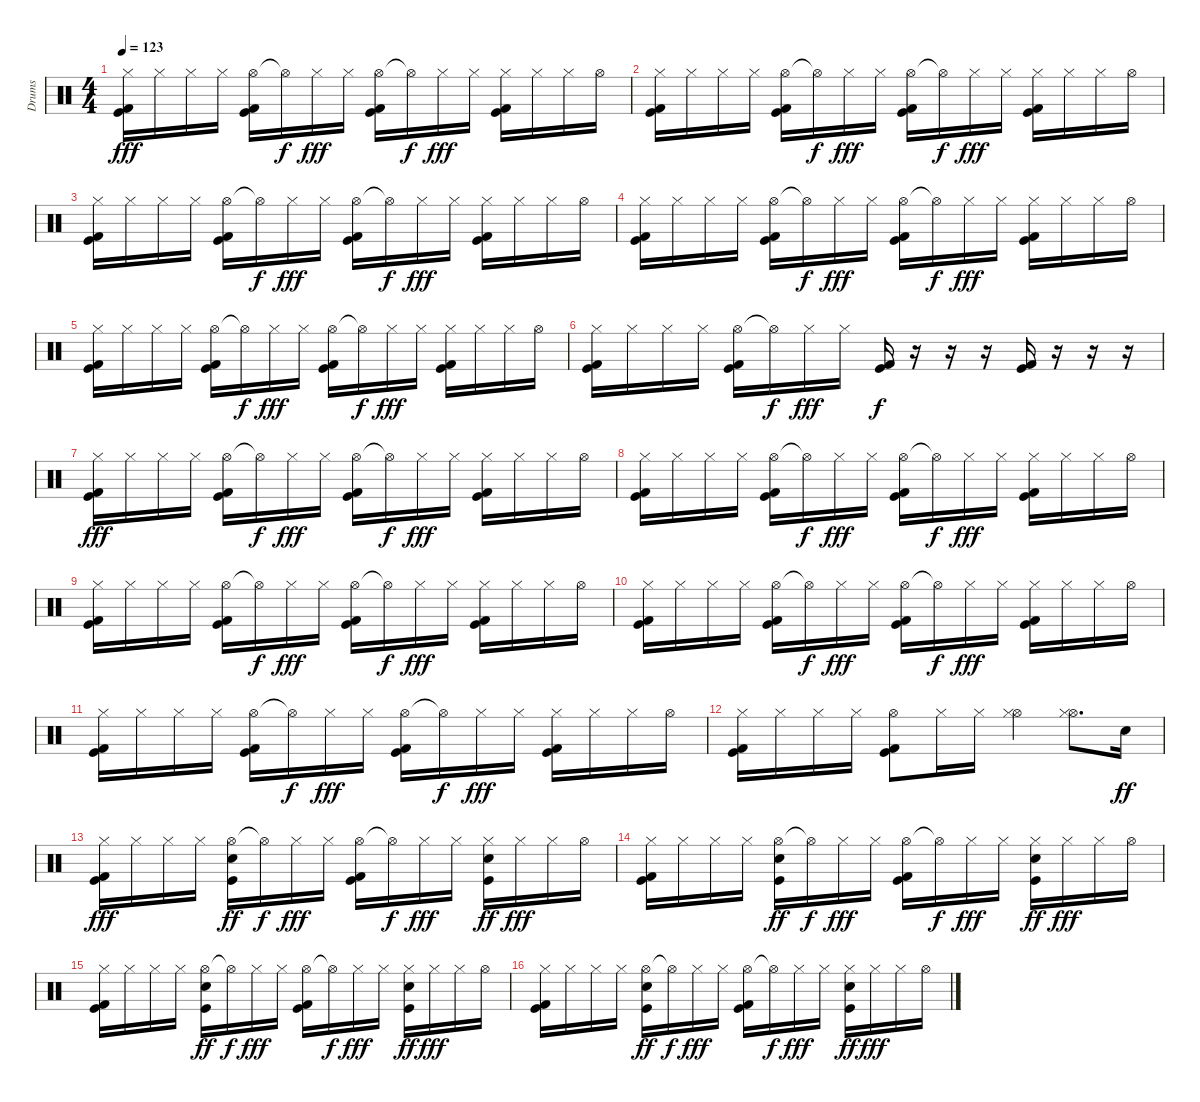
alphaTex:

\track ("Drums" "Drums") {instrument percussion}
\staff {score}
\articulation defaults
\ts (4 4)
\tempo 123
\clef neutral
\ks c
("Hi-Hat (closed)" "Kick (hit) 2" "Kick (hit)").16{dy fff} "Hi-Hat (closed)".16 "Hi-Hat (closed)".16 "Hi-Hat (closed)".16 ("Hi-Hat (open)" "Kick (hit) 2" "Kick (hit)").16 "Hi-Hat (open)"{t}.16{dy f} "Hi-Hat (closed)".16{dy fff} "Hi-Hat (closed)".16 ("Hi-Hat (open)" "Kick (hit) 2" "Kick (hit)").16 "Hi-Hat (open)"{t}.16{dy f} "Hi-Hat (closed)".16{dy fff} "Hi-Hat (closed)".16 ("Hi-Hat (closed)" "Kick (hit) 2" "Kick (hit)").16 "Hi-Hat (closed)".16 "Hi-Hat (closed)".16 "Hi-Hat (open)".16 |
("Hi-Hat (closed)" "Kick (hit) 2" "Kick (hit)").16 "Hi-Hat (closed)".16 "Hi-Hat (closed)".16 "Hi-Hat (closed)".16 ("Hi-Hat (open)" "Kick (hit) 2" "Kick (hit)").16 "Hi-Hat (open)"{t}.16{dy f} "Hi-Hat (closed)".16{dy fff} "Hi-Hat (closed)".16 ("Hi-Hat (open)" "Kick (hit) 2" "Kick (hit)").16 "Hi-Hat (open)"{t}.16{dy f} "Hi-Hat (closed)".16{dy fff} "Hi-Hat (closed)".16 ("Hi-Hat (closed)" "Kick (hit) 2" "Kick (hit)").16 "Hi-Hat (closed)".16 "Hi-Hat (closed)".16 "Hi-Hat (open)".16 |
("Hi-Hat (closed)" "Kick (hit) 2" "Kick (hit)").16 "Hi-Hat (closed)".16 "Hi-Hat (closed)".16 "Hi-Hat (closed)".16 ("Hi-Hat (open)" "Kick (hit) 2" "Kick (hit)").16 "Hi-Hat (open)"{t}.16{dy f} "Hi-Hat (closed)".16{dy fff} "Hi-Hat (closed)".16 ("Hi-Hat (open)" "Kick (hit) 2" "Kick (hit)").16 "Hi-Hat (open)"{t}.16{dy f} "Hi-Hat (closed)".16{dy fff} "Hi-Hat (closed)".16 ("Hi-Hat (closed)" "Kick (hit) 2" "Kick (hit)").16 "Hi-Hat (closed)".16 "Hi-Hat (closed)".16 "Hi-Hat (open)".16 |
("Hi-Hat (closed)" "Kick (hit) 2" "Kick (hit)").16 "Hi-Hat (closed)".16 "Hi-Hat (closed)".16 "Hi-Hat (closed)".16 ("Hi-Hat (open)" "Kick (hit) 2" "Kick (hit)").16 "Hi-Hat (open)"{t}.16{dy f} "Hi-Hat (closed)".16{dy fff} "Hi-Hat (closed)".16 ("Hi-Hat (open)" "Kick (hit) 2" "Kick (hit)").16 "Hi-Hat (open)"{t}.16{dy f} "Hi-Hat (closed)".16{dy fff} "Hi-Hat (closed)".16 ("Hi-Hat (closed)" "Kick (hit) 2" "Kick (hit)").16 "Hi-Hat (closed)".16 "Hi-Hat (closed)".16 "Hi-Hat (open)".16 |
("Hi-Hat (closed)" "Kick (hit) 2" "Kick (hit)").16 "Hi-Hat (closed)".16 "Hi-Hat (closed)".16 "Hi-Hat (closed)".16 ("Hi-Hat (open)" "Kick (hit) 2" "Kick (hit)").16 "Hi-Hat (open)"{t}.16{dy f} "Hi-Hat (closed)".16{dy fff} "Hi-Hat (closed)".16 ("Hi-Hat (open)" "Kick (hit) 2" "Kick (hit)").16 "Hi-Hat (open)"{t}.16{dy f} "Hi-Hat (closed)".16{dy fff} "Hi-Hat (closed)".16 ("Hi-Hat (closed)" "Kick (hit) 2" "Kick (hit)").16 "Hi-Hat (closed)".16 "Hi-Hat (closed)".16 "Hi-Hat (open)".16 |
("Hi-Hat (closed)" "Kick (hit) 2" "Kick (hit)").16 "Hi-Hat (closed)".16 "Hi-Hat (closed)".16 "Hi-Hat (closed)".16 ("Hi-Hat (open)" "Kick (hit) 2" "Kick (hit)").16 "Hi-Hat (open)"{t}.16{dy f} "Hi-Hat (closed)".16{dy fff} "Hi-Hat (closed)".16 ("Kick (hit) 2" "Kick (hit)").16{dy f} r.16 r.16 r.16 ("Kick (hit) 2" "Kick (hit)").16 r.16 r.16 r.16 |
("Hi-Hat (closed)" "Kick (hit) 2" "Kick (hit)").16{dy fff} "Hi-Hat (closed)".16 "Hi-Hat (closed)".16 "Hi-Hat (closed)".16 ("Hi-Hat (open)" "Kick (hit) 2" "Kick (hit)").16 "Hi-Hat (open)"{t}.16{dy f} "Hi-Hat (closed)".16{dy fff} "Hi-Hat (closed)".16 ("Hi-Hat (open)" "Kick (hit) 2" "Kick (hit)").16 "Hi-Hat (open)"{t}.16{dy f} "Hi-Hat (closed)".16{dy fff} "Hi-Hat (closed)".16 ("Hi-Hat (closed)" "Kick (hit) 2" "Kick (hit)").16 "Hi-Hat (closed)".16 "Hi-Hat (closed)".16 "Hi-Hat (open)".16 |
("Hi-Hat (closed)" "Kick (hit) 2" "Kick (hit)").16 "Hi-Hat (closed)".16 "Hi-Hat (closed)".16 "Hi-Hat (closed)".16 ("Hi-Hat (open)" "Kick (hit) 2" "Kick (hit)").16 "Hi-Hat (open)"{t}.16{dy f} "Hi-Hat (closed)".16{dy fff} "Hi-Hat (closed)".16 ("Hi-Hat (open)" "Kick (hit) 2" "Kick (hit)").16 "Hi-Hat (open)"{t}.16{dy f} "Hi-Hat (closed)".16{dy fff} "Hi-Hat (closed)".16 ("Hi-Hat (closed)" "Kick (hit) 2" "Kick (hit)").16 "Hi-Hat (closed)".16 "Hi-Hat (closed)".16 "Hi-Hat (open)".16 |
("Hi-Hat (closed)" "Kick (hit) 2" "Kick (hit)").16 "Hi-Hat (closed)".16 "Hi-Hat (closed)".16 "Hi-Hat (closed)".16 ("Hi-Hat (open)" "Kick (hit) 2" "Kick (hit)").16 "Hi-Hat (open)"{t}.16{dy f} "Hi-Hat (closed)".16{dy fff} "Hi-Hat (closed)".16 ("Hi-Hat (open)" "Kick (hit) 2" "Kick (hit)").16 "Hi-Hat (open)"{t}.16{dy f} "Hi-Hat (closed)".16{dy fff} "Hi-Hat (closed)".16 ("Hi-Hat (closed)" "Kick (hit) 2" "Kick (hit)").16 "Hi-Hat (closed)".16 "Hi-Hat (closed)".16 "Hi-Hat (open)".16 |
("Hi-Hat (closed)" "Kick (hit) 2" "Kick (hit)").16 "Hi-Hat (closed)".16 "Hi-Hat (closed)".16 "Hi-Hat (closed)".16 ("Hi-Hat (open)" "Kick (hit) 2" "Kick (hit)").16 "Hi-Hat (open)"{t}.16{dy f} "Hi-Hat (closed)".16{dy fff} "Hi-Hat (closed)".16 ("Hi-Hat (open)" "Kick (hit) 2" "Kick (hit)").16 "Hi-Hat (open)"{t}.16{dy f} "Hi-Hat (closed)".16{dy fff} "Hi-Hat (closed)".16 ("Hi-Hat (closed)" "Kick (hit) 2" "Kick (hit)").16 "Hi-Hat (closed)".16 "Hi-Hat (closed)".16 "Hi-Hat (open)".16 |
("Hi-Hat (closed)" "Kick (hit) 2" "Kick (hit)").16 "Hi-Hat (closed)".16 "Hi-Hat (closed)".16 "Hi-Hat (closed)".16 ("Hi-Hat (open)" "Kick (hit) 2" "Kick (hit)").16 "Hi-Hat (open)"{t}.16{dy f} "Hi-Hat (closed)".16{dy fff} "Hi-Hat (closed)".16 ("Hi-Hat (open)" "Kick (hit) 2" "Kick (hit)").16 "Hi-Hat (open)"{t}.16{dy f} "Hi-Hat (closed)".16{dy fff} "Hi-Hat (closed)".16 ("Hi-Hat (closed)" "Kick (hit) 2" "Kick (hit)").16 "Hi-Hat (closed)".16 "Hi-Hat (closed)".16 "Hi-Hat (open)".16 |
("Hi-Hat (closed)" "Kick (hit) 2" "Kick (hit)").16 "Hi-Hat (closed)".16 "Hi-Hat (closed)".16 "Hi-Hat (closed)".16 ("Hi-Hat (open)" "Kick (hit) 2" "Kick (hit)").8 "Hi-Hat (closed)".16 "Hi-Hat (closed)".16 ("Hi-Hat (open)" "Hi-Hat (closed)").4 ("Hi-Hat (open)" "Hi-Hat (closed)").8{d} "Snare (hit) 2".16{dy ff} |
("Hi-Hat (closed)" "Kick (hit) 2" "Kick (hit)").16{dy fff} "Hi-Hat (closed)".16 "Hi-Hat (closed)".16 "Hi-Hat (closed)".16 ("Hi-Hat (open)" "Snare (hit) 2" "Kick (hit)").16{dy ff} "Hi-Hat (open)"{t}.16{dy f} "Hi-Hat (closed)".16{dy fff} "Hi-Hat (closed)".16 ("Hi-Hat (open)" "Kick (hit) 2" "Kick (hit)").16 "Hi-Hat (open)"{t}.16{dy f} "Hi-Hat (closed)".16{dy fff} "Hi-Hat (closed)".16 ("Hi-Hat (closed)" "Snare (hit) 2" "Kick (hit)").16{dy ff} "Hi-Hat (closed)".16{dy fff} "Hi-Hat (closed)".16 "Hi-Hat (open)".16 |
("Hi-Hat (closed)" "Kick (hit) 2" "Kick (hit)").16 "Hi-Hat (closed)".16 "Hi-Hat (closed)".16 "Hi-Hat (closed)".16 ("Hi-Hat (open)" "Snare (hit) 2" "Kick (hit)").16{dy ff} "Hi-Hat (open)"{t}.16{dy f} "Hi-Hat (closed)".16{dy fff} "Hi-Hat (closed)".16 ("Hi-Hat (open)" "Kick (hit) 2" "Kick (hit)").16 "Hi-Hat (open)"{t}.16{dy f} "Hi-Hat (closed)".16{dy fff} "Hi-Hat (closed)".16 ("Hi-Hat (closed)" "Snare (hit) 2" "Kick (hit)").16{dy ff} "Hi-Hat (closed)".16{dy fff} "Hi-Hat (closed)".16 "Hi-Hat (open)".16 |
("Hi-Hat (closed)" "Kick (hit) 2" "Kick (hit)").16 "Hi-Hat (closed)".16 "Hi-Hat (closed)".16 "Hi-Hat (closed)".16 ("Hi-Hat (open)" "Snare (hit) 2" "Kick (hit)").16{dy ff} "Hi-Hat (open)"{t}.16{dy f} "Hi-Hat (closed)".16{dy fff} "Hi-Hat (closed)".16 ("Hi-Hat (open)" "Kick (hit) 2" "Kick (hit)").16 "Hi-Hat (open)"{t}.16{dy f} "Hi-Hat (closed)".16{dy fff} "Hi-Hat (closed)".16 ("Hi-Hat (closed)" "Snare (hit) 2" "Kick (hit)").16{dy ff} "Hi-Hat (closed)".16{dy fff} "Hi-Hat (closed)".16 "Hi-Hat (open)".16 |
("Hi-Hat (closed)" "Kick (hit) 2" "Kick (hit)").16 "Hi-Hat (closed)".16 "Hi-Hat (closed)".16 "Hi-Hat (closed)".16 ("Hi-Hat (open)" "Snare (hit) 2" "Kick (hit)").16{dy ff} "Hi-Hat (open)"{t}.16{dy f} "Hi-Hat (closed)".16{dy fff} "Hi-Hat (closed)".16 ("Hi-Hat (open)" "Kick (hit) 2" "Kick (hit)").16 "Hi-Hat (open)"{t}.16{dy f} "Hi-Hat (closed)".16{dy fff} "Hi-Hat (closed)".16 ("Hi-Hat (closed)" "Snare (hit) 2" "Kick (hit)").16{dy ff} "Hi-Hat (closed)".16{dy fff} "Hi-Hat (closed)".16 "Hi-Hat (open)".16
